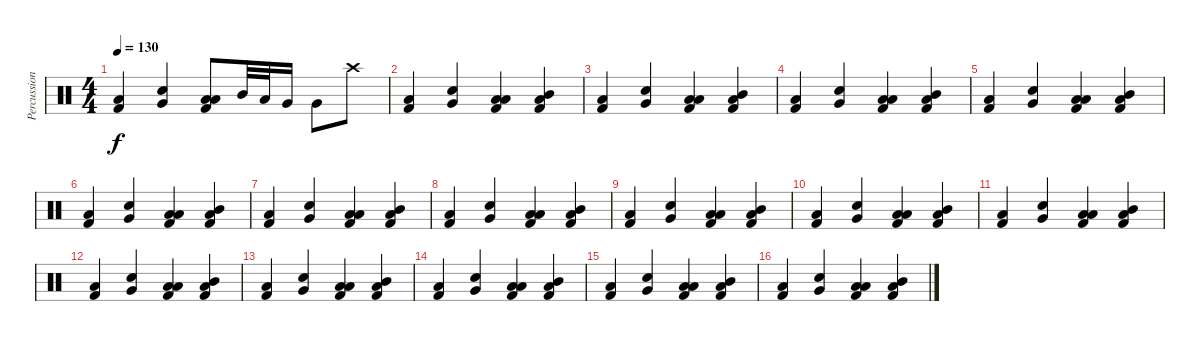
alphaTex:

\track ("Percussion" "Percussion") {instrument percussion}
\staff {score}
\articulation defaults
\ts (4 4)
\tempo 130
\clef neutral
\ks c
("Kick (hit) 2" "Low Floor Tom (hit)").4{dy f} ("Very Low Tom (hit)" "Snare (hit) 2").4 ("Low Floor Tom (hit)" "Kick (hit) 2" "Low Tom (hit)").8 "Mid Tom (hit)".32 "Low Tom (hit)".32 "Very Low Tom (hit)".16 "Very Low Tom (hit)".8 "Crash high (hit)".8 |
("Kick (hit) 2" "Low Floor Tom (hit)").4 ("Very Low Tom (hit)" "Snare (hit) 2").4 ("Low Floor Tom (hit)" "Kick (hit) 2" "Low Tom (hit)").4 ("Low Tom (hit)" "Kick (hit) 2" "Mid Tom (hit)").4 |
("Kick (hit) 2" "Low Floor Tom (hit)").4 ("Very Low Tom (hit)" "Snare (hit) 2").4 ("Low Floor Tom (hit)" "Kick (hit) 2" "Low Tom (hit)").4 ("Low Tom (hit)" "Kick (hit) 2" "Mid Tom (hit)").4 |
("Kick (hit) 2" "Low Floor Tom (hit)").4 ("Very Low Tom (hit)" "Snare (hit) 2").4 ("Low Floor Tom (hit)" "Kick (hit) 2" "Low Tom (hit)").4 ("Low Tom (hit)" "Kick (hit) 2" "Mid Tom (hit)").4 |
("Kick (hit) 2" "Low Floor Tom (hit)").4 ("Very Low Tom (hit)" "Snare (hit) 2").4 ("Low Floor Tom (hit)" "Kick (hit) 2" "Low Tom (hit)").4 ("Low Tom (hit)" "Kick (hit) 2" "Mid Tom (hit)").4 |
("Kick (hit) 2" "Low Floor Tom (hit)").4 ("Very Low Tom (hit)" "Snare (hit) 2").4 ("Low Floor Tom (hit)" "Kick (hit) 2" "Low Tom (hit)").4 ("Low Tom (hit)" "Kick (hit) 2" "Mid Tom (hit)").4 |
("Kick (hit) 2" "Low Floor Tom (hit)").4 ("Very Low Tom (hit)" "Snare (hit) 2").4 ("Low Floor Tom (hit)" "Kick (hit) 2" "Low Tom (hit)").4 ("Low Tom (hit)" "Kick (hit) 2" "Mid Tom (hit)").4 |
("Kick (hit) 2" "Low Floor Tom (hit)").4 ("Very Low Tom (hit)" "Snare (hit) 2").4 ("Low Floor Tom (hit)" "Kick (hit) 2" "Low Tom (hit)").4 ("Low Tom (hit)" "Kick (hit) 2" "Mid Tom (hit)").4 |
("Kick (hit) 2" "Low Floor Tom (hit)").4 ("Very Low Tom (hit)" "Snare (hit) 2").4 ("Low Floor Tom (hit)" "Kick (hit) 2" "Low Tom (hit)").4 ("Low Tom (hit)" "Kick (hit) 2" "Mid Tom (hit)").4 |
("Kick (hit) 2" "Low Floor Tom (hit)").4 ("Very Low Tom (hit)" "Snare (hit) 2").4 ("Low Floor Tom (hit)" "Kick (hit) 2" "Low Tom (hit)").4 ("Low Tom (hit)" "Kick (hit) 2" "Mid Tom (hit)").4 |
("Kick (hit) 2" "Low Floor Tom (hit)").4 ("Very Low Tom (hit)" "Snare (hit) 2").4 ("Low Floor Tom (hit)" "Kick (hit) 2" "Low Tom (hit)").4 ("Low Tom (hit)" "Kick (hit) 2" "Mid Tom (hit)").4 |
("Kick (hit) 2" "Low Floor Tom (hit)").4 ("Very Low Tom (hit)" "Snare (hit) 2").4 ("Low Floor Tom (hit)" "Kick (hit) 2" "Low Tom (hit)").4 ("Low Tom (hit)" "Kick (hit) 2" "Mid Tom (hit)").4 |
("Kick (hit) 2" "Low Floor Tom (hit)").4 ("Very Low Tom (hit)" "Snare (hit) 2").4 ("Low Floor Tom (hit)" "Kick (hit) 2" "Low Tom (hit)").4 ("Low Tom (hit)" "Kick (hit) 2" "Mid Tom (hit)").4 |
("Kick (hit) 2" "Low Floor Tom (hit)").4 ("Very Low Tom (hit)" "Snare (hit) 2").4 ("Low Floor Tom (hit)" "Kick (hit) 2" "Low Tom (hit)").4 ("Low Tom (hit)" "Kick (hit) 2" "Mid Tom (hit)").4 |
("Kick (hit) 2" "Low Floor Tom (hit)").4 ("Very Low Tom (hit)" "Snare (hit) 2").4 ("Low Floor Tom (hit)" "Kick (hit) 2" "Low Tom (hit)").4 ("Low Tom (hit)" "Kick (hit) 2" "Mid Tom (hit)").4 |
("Kick (hit) 2" "Low Floor Tom (hit)").4 ("Very Low Tom (hit)" "Snare (hit) 2").4 ("Low Floor Tom (hit)" "Kick (hit) 2" "Low Tom (hit)").4 ("Low Tom (hit)" "Kick (hit) 2" "Mid Tom (hit)").4
